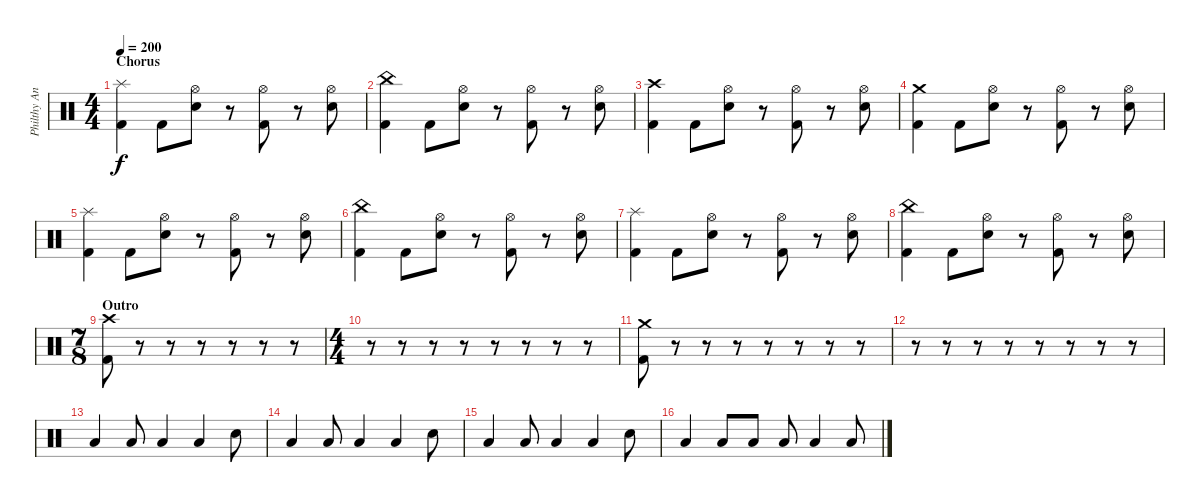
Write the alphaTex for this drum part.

\track ("Philthy Animal Taylor" "Philthy An") {instrument percussion}
\staff {score}
\articulation defaults
\ts (4 4)
\section ("" "Chorus")
\tempo 200
\clef neutral
\ks c
("Splash (hit)" "Kick (hit) 2").4{dy f} "Kick (hit) 2".8 ("Hi-Hat (open)" "Snare (hit) 2").8 r.8 ("Hi-Hat (open)" "Kick (hit) 2").8 r.8 ("Hi-Hat (open)" "Snare (hit) 2").8 |
("China (hit)" "Kick (hit) 2").4 "Kick (hit) 2".8 ("Hi-Hat (open)" "Snare (hit) 2").8 r.8 ("Hi-Hat (open)" "Kick (hit) 2").8 r.8 ("Hi-Hat (open)" "Snare (hit) 2").8 |
("Crash high (hit)" "Kick (hit) 2").4 "Kick (hit) 2".8 ("Hi-Hat (open)" "Snare (hit) 2").8 r.8 ("Hi-Hat (open)" "Kick (hit) 2").8 r.8 ("Hi-Hat (open)" "Snare (hit) 2").8 |
("Crash medium (hit)" "Kick (hit) 2").4 "Kick (hit) 2".8 ("Hi-Hat (open)" "Snare (hit) 2").8 r.8 ("Hi-Hat (open)" "Kick (hit) 2").8 r.8 ("Hi-Hat (open)" "Snare (hit) 2").8 |
("Splash (hit)" "Kick (hit) 2").4 "Kick (hit) 2".8 ("Hi-Hat (open)" "Snare (hit) 2").8 r.8 ("Hi-Hat (open)" "Kick (hit) 2").8 r.8 ("Hi-Hat (open)" "Snare (hit) 2").8 |
("China (hit)" "Kick (hit) 2").4 "Kick (hit) 2".8 ("Hi-Hat (open)" "Snare (hit) 2").8 r.8 ("Hi-Hat (open)" "Kick (hit) 2").8 r.8 ("Hi-Hat (open)" "Snare (hit) 2").8 |
("Splash (hit)" "Kick (hit) 2").4 "Kick (hit) 2".8 ("Hi-Hat (open)" "Snare (hit) 2").8 r.8 ("Hi-Hat (open)" "Kick (hit) 2").8 r.8 ("Hi-Hat (open)" "Snare (hit) 2").8 |
("China (hit)" "Kick (hit) 2").4 "Kick (hit) 2".8 ("Hi-Hat (open)" "Snare (hit) 2").8 r.8 ("Hi-Hat (open)" "Kick (hit) 2").8 r.8 ("Hi-Hat (open)" "Snare (hit) 2").8 |
\ts (7 8)
\section ("" "Outro")
("Crash high (hit)" "Kick (hit) 2").8 r.8 r.8 r.8 r.8 r.8 r.8 |
\ts (4 4)
r.8 r.8 r.8 r.8 r.8 r.8 r.8 r.8 |
("Crash medium (hit)" "Kick (hit) 2").8 r.8 r.8 r.8 r.8 r.8 r.8 r.8 |
r.8 r.8 r.8 r.8 r.8 r.8 r.8 r.8 |
"Low Floor Tom (hit)".4 "Low Floor Tom (hit)".8 "Low Floor Tom (hit)".4 "Low Floor Tom (hit)".4 "Snare (hit)".8 |
"Low Floor Tom (hit)".4 "Low Floor Tom (hit)".8 "Low Floor Tom (hit)".4 "Low Floor Tom (hit)".4 "Snare (hit)".8 |
"Low Floor Tom (hit)".4 "Low Floor Tom (hit)".8 "Low Floor Tom (hit)".4 "Low Floor Tom (hit)".4 "Snare (hit)".8 |
"Low Floor Tom (hit)".4 "Low Floor Tom (hit)".8 "Low Floor Tom (hit)".8 "Low Floor Tom (hit)".8 "Low Floor Tom (hit)".4 "Low Floor Tom (hit)".8
